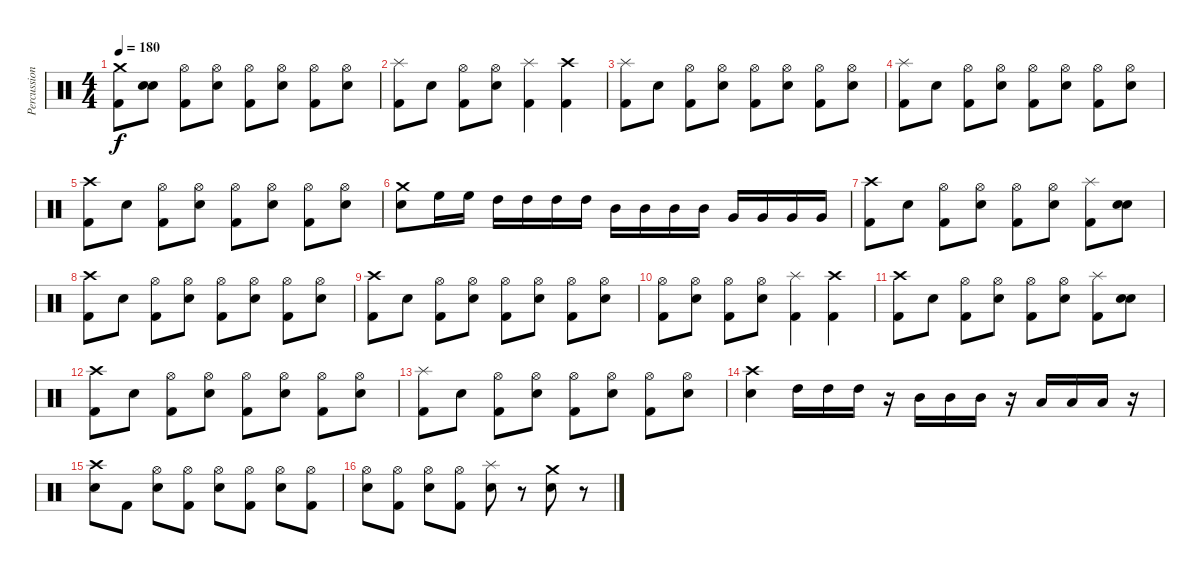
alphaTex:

\track ("Percussion" "Percussion") {instrument percussion}
\staff {score}
\articulation defaults
\ts (4 4)
\tempo 180
\clef neutral
\ks c
("Crash medium (hit)" "Kick (hit) 2").8{dy f} ("Snare (hit)" "Snare (hit) 2").8 ("Hi-Hat (open)" "Kick (hit) 2").8 ("Hi-Hat (open)" "Snare (hit) 2").8 ("Hi-Hat (open)" "Kick (hit) 2").8 ("Hi-Hat (open)" "Snare (hit) 2").8 ("Hi-Hat (open)" "Kick (hit) 2").8 ("Hi-Hat (open)" "Snare (hit) 2").8 |
("Splash (hit)" "Kick (hit) 2").8 "Snare (hit) 2".8 ("Hi-Hat (open)" "Kick (hit) 2").8 ("Hi-Hat (open)" "Snare (hit) 2").8 ("Splash (hit)" "Kick (hit) 2").4 ("Crash high (hit)" "Kick (hit) 2").4 |
("Splash (hit)" "Kick (hit) 2").8 "Snare (hit) 2".8 ("Hi-Hat (open)" "Kick (hit) 2").8 ("Hi-Hat (open)" "Snare (hit) 2").8 ("Hi-Hat (open)" "Kick (hit) 2").8 ("Hi-Hat (open)" "Snare (hit) 2").8 ("Hi-Hat (open)" "Kick (hit) 2").8 ("Hi-Hat (open)" "Snare (hit) 2").8 |
("Splash (hit)" "Kick (hit) 2").8 "Snare (hit) 2".8 ("Hi-Hat (open)" "Kick (hit) 2").8 ("Hi-Hat (open)" "Snare (hit) 2").8 ("Hi-Hat (open)" "Kick (hit) 2").8 ("Hi-Hat (open)" "Snare (hit) 2").8 ("Hi-Hat (open)" "Kick (hit) 2").8 ("Hi-Hat (open)" "Snare (hit) 2").8 |
("Crash high (hit)" "Kick (hit) 2").8 "Snare (hit) 2".8 ("Hi-Hat (open)" "Kick (hit) 2").8 ("Hi-Hat (open)" "Snare (hit) 2").8 ("Hi-Hat (open)" "Kick (hit) 2").8 ("Hi-Hat (open)" "Snare (hit) 2").8 ("Hi-Hat (open)" "Kick (hit) 2").8 ("Hi-Hat (open)" "Snare (hit) 2").8 |
("Crash medium (hit)" "Snare (hit) 2").8 "High Floor Tom (hit)".16 "High Floor Tom (hit)".16 "High Tom (hit)".16 "High Tom (hit)".16 "High Tom (hit)".16 "High Tom (hit)".16 "Mid Tom (hit)".16 "Mid Tom (hit)".16 "Mid Tom (hit)".16 "Mid Tom (hit)".16 "Very Low Tom (hit)".16 "Very Low Tom (hit)".16 "Very Low Tom (hit)".16 "Very Low Tom (hit)".16 |
("Crash high (hit)" "Kick (hit) 2").8 "Snare (hit) 2".8 ("Hi-Hat (open)" "Kick (hit) 2").8 ("Hi-Hat (open)" "Snare (hit) 2").8 ("Hi-Hat (open)" "Kick (hit) 2").8 ("Hi-Hat (open)" "Snare (hit) 2").8 ("Splash (hit)" "Kick (hit) 2").8 ("Snare (hit)" "Snare (hit) 2").8 |
("Crash high (hit)" "Kick (hit) 2").8 "Snare (hit) 2".8 ("Hi-Hat (open)" "Kick (hit) 2").8 ("Hi-Hat (open)" "Snare (hit) 2").8 ("Hi-Hat (open)" "Kick (hit) 2").8 ("Hi-Hat (open)" "Snare (hit) 2").8 ("Hi-Hat (open)" "Kick (hit) 2").8 ("Hi-Hat (open)" "Snare (hit) 2").8 |
("Crash high (hit)" "Kick (hit) 2").8 "Snare (hit) 2".8 ("Hi-Hat (open)" "Kick (hit) 2").8 ("Hi-Hat (open)" "Snare (hit) 2").8 ("Hi-Hat (open)" "Kick (hit) 2").8 ("Hi-Hat (open)" "Snare (hit) 2").8 ("Hi-Hat (open)" "Kick (hit) 2").8 ("Hi-Hat (open)" "Snare (hit) 2").8 |
("Hi-Hat (open)" "Kick (hit) 2").8 ("Hi-Hat (open)" "Snare (hit) 2").8 ("Hi-Hat (open)" "Kick (hit) 2").8 ("Hi-Hat (open)" "Snare (hit) 2").8 ("Splash (hit)" "Kick (hit) 2").4 ("Crash high (hit)" "Kick (hit) 2").4 |
("Crash high (hit)" "Kick (hit) 2").8 "Snare (hit) 2".8 ("Hi-Hat (open)" "Kick (hit) 2").8 ("Hi-Hat (open)" "Snare (hit) 2").8 ("Hi-Hat (open)" "Kick (hit) 2").8 ("Hi-Hat (open)" "Snare (hit) 2").8 ("Splash (hit)" "Kick (hit) 2").8 ("Snare (hit)" "Snare (hit) 2").8 |
("Crash high (hit)" "Kick (hit) 2").8 "Snare (hit) 2".8 ("Hi-Hat (open)" "Kick (hit) 2").8 ("Hi-Hat (open)" "Snare (hit) 2").8 ("Hi-Hat (open)" "Kick (hit) 2").8 ("Hi-Hat (open)" "Snare (hit) 2").8 ("Hi-Hat (open)" "Kick (hit) 2").8 ("Hi-Hat (open)" "Snare (hit) 2").8 |
("Splash (hit)" "Kick (hit) 2").8 "Snare (hit) 2".8 ("Hi-Hat (open)" "Kick (hit) 2").8 ("Hi-Hat (open)" "Snare (hit) 2").8 ("Hi-Hat (open)" "Kick (hit) 2").8 ("Hi-Hat (open)" "Snare (hit) 2").8 ("Hi-Hat (open)" "Kick (hit) 2").8 ("Hi-Hat (open)" "Snare (hit) 2").8 |
("Crash high (hit)" "Snare (hit) 2").4 "High Tom (hit)".16 "High Tom (hit)".16 "High Tom (hit)".16 r.16 "Mid Tom (hit)".16 "Mid Tom (hit)".16 "Mid Tom (hit)".16 r.16 "Low Tom (hit)".16 "Low Tom (hit)".16 "Low Tom (hit)".16 r.16 |
("Crash high (hit)" "Snare (hit) 2").8 "Kick (hit) 2".8 ("Hi-Hat (open)" "Snare (hit) 2").8 ("Hi-Hat (open)" "Kick (hit) 2").8 ("Hi-Hat (open)" "Snare (hit) 2").8 ("Hi-Hat (open)" "Kick (hit) 2").8 ("Hi-Hat (open)" "Snare (hit) 2").8 ("Hi-Hat (open)" "Kick (hit) 2").8 |
("Hi-Hat (open)" "Snare (hit) 2").8 ("Hi-Hat (open)" "Kick (hit) 2").8 ("Hi-Hat (open)" "Snare (hit) 2").8 ("Hi-Hat (open)" "Kick (hit) 2").8 ("Splash (hit)" "Snare (hit) 2").8 r.8 ("Crash medium (hit)" "Snare (hit) 2").8 r.8
